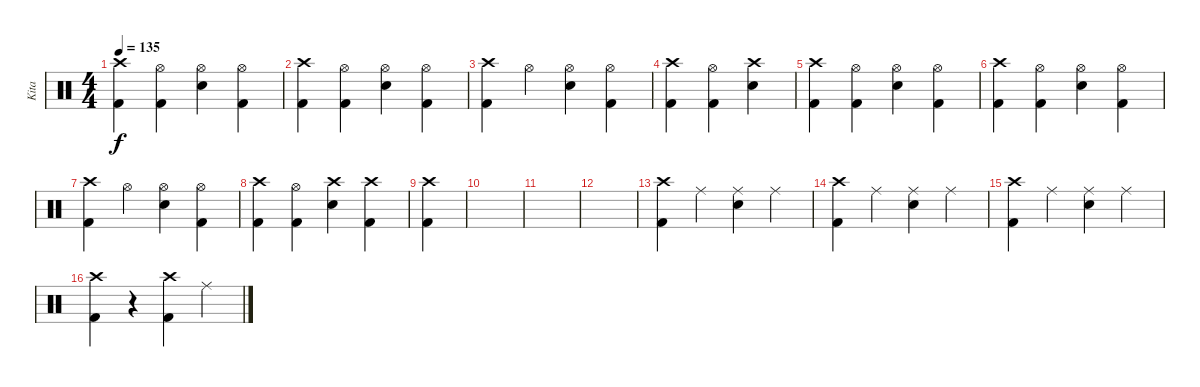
\track ("Kita" "Kita") {instrument percussion}
\staff {score}
\articulation defaults
\ts (4 4)
\tempo 135
\clef neutral
\ks c
("Kick (hit) 2" "Crash high (hit)").4{dy f} ("Kick (hit) 2" "Hi-Hat (open)").4 ("Snare (hit) 2" "Hi-Hat (open)").4 ("Kick (hit) 2" "Hi-Hat (open)").4 |
("Kick (hit) 2" "Crash high (hit)").4 ("Kick (hit) 2" "Hi-Hat (open)").4 ("Snare (hit) 2" "Hi-Hat (open)").4 ("Kick (hit) 2" "Hi-Hat (open)").4 |
("Kick (hit) 2" "Crash high (hit)").4 "Hi-Hat (open)".4 ("Snare (hit) 2" "Hi-Hat (open)").4 ("Kick (hit) 2" "Hi-Hat (open)").4 |
("Kick (hit) 2" "Crash high (hit)").4 ("Kick (hit) 2" "Hi-Hat (open)").4 ("Crash high (hit)" "Snare (hit) 2").4 |
("Kick (hit) 2" "Crash high (hit)").4 ("Kick (hit) 2" "Hi-Hat (open)").4 ("Snare (hit) 2" "Hi-Hat (open)").4 ("Kick (hit) 2" "Hi-Hat (open)").4 |
("Kick (hit) 2" "Crash high (hit)").4 ("Kick (hit) 2" "Hi-Hat (open)").4 ("Snare (hit) 2" "Hi-Hat (open)").4 ("Kick (hit) 2" "Hi-Hat (open)").4 |
("Kick (hit) 2" "Crash high (hit)").4 "Hi-Hat (open)".4 ("Snare (hit) 2" "Hi-Hat (open)").4 ("Kick (hit) 2" "Hi-Hat (open)").4 |
("Kick (hit) 2" "Crash high (hit)").4 ("Kick (hit) 2" "Hi-Hat (open)").4 ("Crash high (hit)" "Snare (hit) 2").4 ("Crash high (hit)" "Kick (hit) 2").4 |
("Crash high (hit)" "Kick (hit) 2").4 |
|
|
|
("Kick (hit) 2" "Crash high (hit)").4 "Ride (middle)".4 ("Snare (hit) 2" "Ride (middle)").4 "Ride (middle)".4 |
("Kick (hit) 2" "Crash high (hit)").4 "Ride (middle)".4 ("Snare (hit) 2" "Ride (middle)").4 "Ride (middle)".4 |
("Kick (hit) 2" "Crash high (hit)").4 "Ride (middle)".4 ("Snare (hit) 2" "Ride (middle)").4 "Ride (middle)".4 |
("Kick (hit) 2" "Crash high (hit)").4 r.4 ("Kick (hit) 2" "Crash high (hit)").4 "Ride (middle)".4
